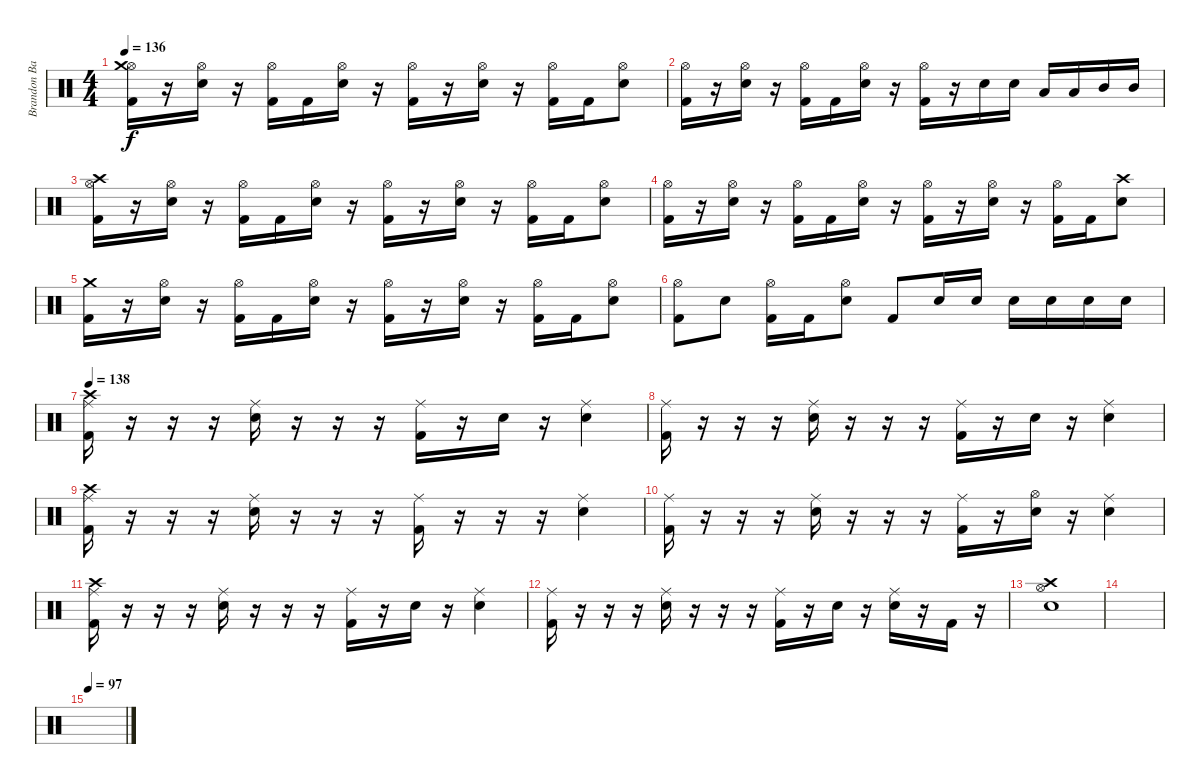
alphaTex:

\track ("Brandon Barnes (Drums)" "Brandon Ba") {instrument percussion}
\staff {score}
\articulation defaults
\ts (4 4)
\tempo 136
\clef neutral
\ks c
("Hi-Hat (open)" "Kick (hit) 2" "Crash medium (hit)").16{dy f} r.16 ("Hi-Hat (open)" "Snare (hit) 2").16 r.16 ("Hi-Hat (open)" "Kick (hit) 2").16 "Kick (hit) 2".16 ("Hi-Hat (open)" "Snare (hit) 2").16 r.16 ("Hi-Hat (open)" "Kick (hit) 2").16 r.16 ("Hi-Hat (open)" "Snare (hit) 2").16 r.16 ("Hi-Hat (open)" "Kick (hit) 2").16 "Kick (hit) 2".16 ("Hi-Hat (open)" "Snare (hit) 2").8 |
("Hi-Hat (open)" "Kick (hit) 2").16 r.16 ("Hi-Hat (open)" "Snare (hit) 2").16 r.16 ("Hi-Hat (open)" "Kick (hit) 2").16 "Kick (hit) 2".16 ("Hi-Hat (open)" "Snare (hit) 2").16 r.16 ("Hi-Hat (open)" "Kick (hit) 2").16 r.16 "Snare (hit) 2".16 "Snare (hit) 2".16 "Low Tom (hit)".16 "Low Tom (hit)".16 "Mid Tom (hit)".16 "Mid Tom (hit)".16 |
("Hi-Hat (open)" "Kick (hit) 2" "Crash high (hit)").16 r.16 ("Hi-Hat (open)" "Snare (hit) 2").16 r.16 ("Hi-Hat (open)" "Kick (hit) 2").16 "Kick (hit) 2".16 ("Hi-Hat (open)" "Snare (hit) 2").16 r.16 ("Hi-Hat (open)" "Kick (hit) 2").16 r.16 ("Hi-Hat (open)" "Snare (hit) 2").16 r.16 ("Hi-Hat (open)" "Kick (hit) 2").16 "Kick (hit) 2".16 ("Hi-Hat (open)" "Snare (hit) 2").8 |
("Hi-Hat (open)" "Kick (hit) 2").16 r.16 ("Hi-Hat (open)" "Snare (hit) 2").16 r.16 ("Hi-Hat (open)" "Kick (hit) 2").16 "Kick (hit) 2".16 ("Hi-Hat (open)" "Snare (hit) 2").16 r.16 ("Hi-Hat (open)" "Kick (hit) 2").16 r.16 ("Hi-Hat (open)" "Snare (hit) 2").16 r.16 ("Hi-Hat (open)" "Kick (hit) 2").16 "Kick (hit) 2".16 ("Snare (hit) 2" "Crash high (hit)").8 |
("Kick (hit) 2" "Crash medium (hit)").16 r.16 ("Hi-Hat (open)" "Snare (hit) 2").16 r.16 ("Hi-Hat (open)" "Kick (hit) 2").16 "Kick (hit) 2".16 ("Hi-Hat (open)" "Snare (hit) 2").16 r.16 ("Hi-Hat (open)" "Kick (hit) 2").16 r.16 ("Hi-Hat (open)" "Snare (hit) 2").16 r.16 ("Hi-Hat (open)" "Kick (hit) 2").16 "Kick (hit) 2".16 ("Hi-Hat (open)" "Snare (hit) 2").8 |
("Hi-Hat (open)" "Kick (hit) 2").8 "Snare (hit) 2".8 ("Hi-Hat (open)" "Kick (hit) 2").16 "Kick (hit) 2".16 ("Hi-Hat (open)" "Snare (hit) 2").8 "Kick (hit) 2".8 "Snare (hit) 2".16 "Snare (hit) 2".16 "Snare (hit) 2".16 "Snare (hit) 2".16 "Snare (hit) 2".16 "Snare (hit) 2".16 |
\tempo 138
("Ride (middle)" "Kick (hit) 2" "Crash high (hit)").16 r.16 r.16 r.16 ("Ride (middle)" "Snare (hit) 2").16 r.16 r.16 r.16 ("Ride (middle)" "Kick (hit) 2").16 r.16 "Snare (hit) 2".16 r.16 ("Ride (middle)" "Snare (hit) 2").4 |
("Ride (middle)" "Kick (hit) 2").16 r.16 r.16 r.16 ("Ride (middle)" "Snare (hit) 2").16 r.16 r.16 r.16 ("Ride (middle)" "Kick (hit) 2").16 r.16 "Snare (hit) 2".16 r.16 ("Ride (middle)" "Snare (hit) 2").4 |
("Ride (middle)" "Kick (hit) 2" "Crash high (hit)").16 r.16 r.16 r.16 ("Ride (middle)" "Snare (hit) 2").16 r.16 r.16 r.16 ("Ride (middle)" "Kick (hit) 2").16 r.16 r.16 r.16 ("Ride (middle)" "Snare (hit) 2").4 |
("Ride (middle)" "Kick (hit) 2").16 r.16 r.16 r.16 ("Ride (middle)" "Snare (hit) 2").16 r.16 r.16 r.16 ("Ride (middle)" "Kick (hit) 2").16 r.16 ("Snare (hit) 2" "Hi-Hat (open)").16 r.16 ("Ride (middle)" "Snare (hit) 2").4 |
("Ride (middle)" "Kick (hit) 2" "Crash high (hit)").16 r.16 r.16 r.16 ("Ride (middle)" "Snare (hit) 2").16 r.16 r.16 r.16 ("Ride (middle)" "Kick (hit) 2").16 r.16 "Snare (hit) 2".16 r.16 ("Ride (middle)" "Snare (hit) 2").4 |
("Ride (middle)" "Kick (hit) 2").16 r.16 r.16 r.16 ("Ride (middle)" "Snare (hit) 2").16 r.16 r.16 r.16 ("Ride (middle)" "Kick (hit) 2").16 r.16 "Snare (hit) 2".16 r.16 ("Ride (middle)" "Snare (hit) 2").16 r.16 "Kick (hit) 2".16 r.16 |
("Snare (hit) 2" "Hi-Hat (open)" "Crash high (hit)").1 |
|
\tempo 97
